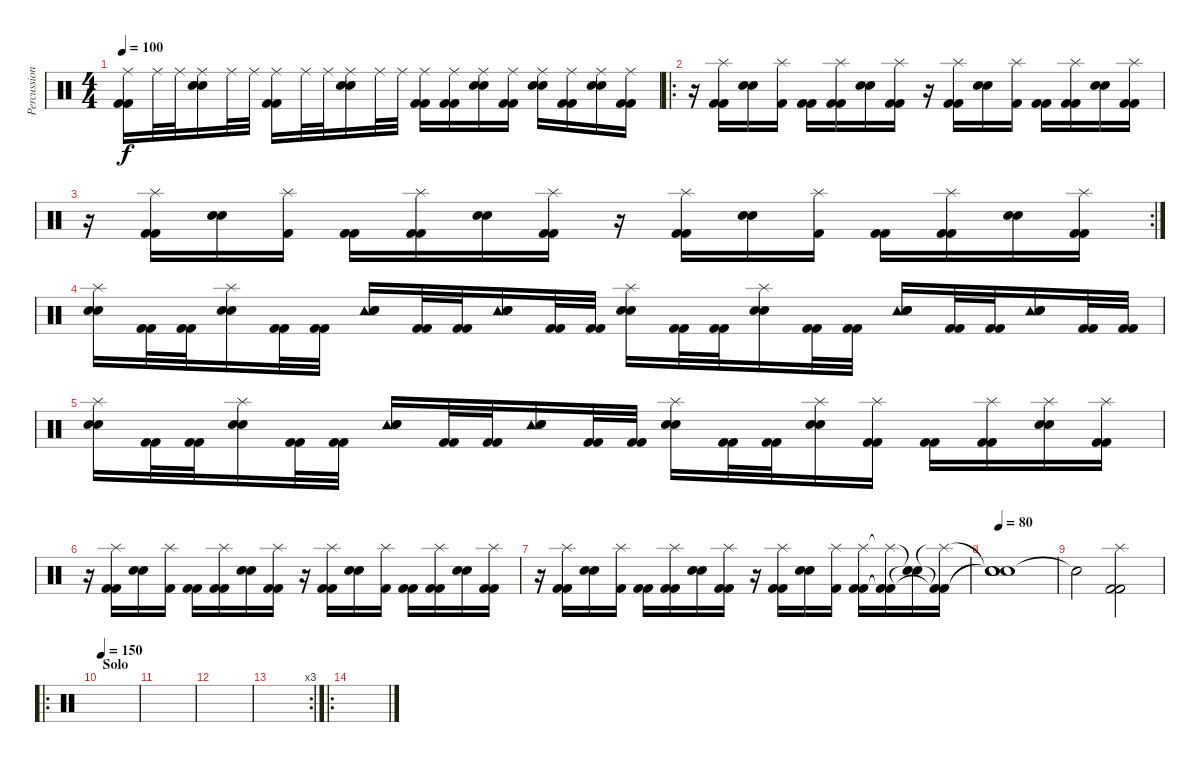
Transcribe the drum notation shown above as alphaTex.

\track ("Percussion Dolmayan" "Percussion") {instrument percussion}
\staff {score}
\articulation defaults
\ts (4 4)
\tempo 100
\clef neutral
\ks c
("Ride (middle)" "Kick (hit) 2" "Kick (hit) 2").16{dy f} "Ride (middle)".32 "Ride (middle)".32 ("Ride (middle)" "Electric Snare (hit)" "Electric Snare (hit)").16 "Ride (middle)".32 "Ride (middle)".32 ("Ride (middle)" "Kick (hit) 2" "Kick (hit) 2").16 "Ride (middle)".32 "Ride (middle)".32 ("Ride (middle)" "Electric Snare (hit)" "Electric Snare (hit)").16 "Ride (middle)".32 "Ride (middle)".32 ("Ride (middle)" "Kick (hit) 2" "Kick (hit) 2").16 ("Ride (middle)" "Kick (hit) 2" "Kick (hit) 2").16 ("Ride (middle)" "Electric Snare (hit)" "Electric Snare (hit)").16 ("Ride (middle)" "Kick (hit) 2" "Kick (hit) 2").16 ("Ride (middle)" "Electric Snare (hit)" "Electric Snare (hit)").16 ("Ride (middle)" "Kick (hit) 2" "Kick (hit) 2").16 ("Ride (middle)" "Electric Snare (hit)" "Electric Snare (hit)").16 ("Ride (middle)" "Kick (hit) 2" "Kick (hit) 2").16 |
\ro
r.16 ("Splash (hit)" "Kick (hit) 2" "Kick (hit) 2").16 ("Electric Snare (hit)" "Electric Snare (hit)").16 ("Splash (hit)" "Kick (hit) 2").16 ("Kick (hit) 2" "Kick (hit) 2").16 ("Splash (hit)" "Kick (hit) 2" "Kick (hit) 2").16 ("Electric Snare (hit)" "Electric Snare (hit)").16 ("Splash (hit)" "Kick (hit) 2" "Kick (hit) 2").16 r.16 ("Splash (hit)" "Kick (hit) 2" "Kick (hit) 2").16 ("Electric Snare (hit)" "Electric Snare (hit)").16 ("Splash (hit)" "Kick (hit) 2").16 ("Kick (hit) 2" "Kick (hit) 2").16 ("Splash (hit)" "Kick (hit) 2" "Kick (hit) 2").16 ("Electric Snare (hit)" "Electric Snare (hit)").16 ("Splash (hit)" "Kick (hit) 2" "Kick (hit) 2").16 |
\rc 2
r.16 ("Splash (hit)" "Kick (hit) 2" "Kick (hit) 2").16 ("Electric Snare (hit)" "Electric Snare (hit)").16 ("Splash (hit)" "Kick (hit) 2").16 ("Kick (hit) 2" "Kick (hit) 2").16 ("Splash (hit)" "Kick (hit) 2" "Kick (hit) 2").16 ("Electric Snare (hit)" "Electric Snare (hit)").16 ("Splash (hit)" "Kick (hit) 2" "Kick (hit) 2").16 r.16 ("Splash (hit)" "Kick (hit) 2" "Kick (hit) 2").16 ("Electric Snare (hit)" "Electric Snare (hit)").16 ("Splash (hit)" "Kick (hit) 2").16 ("Kick (hit) 2" "Kick (hit) 2").16 ("Splash (hit)" "Kick (hit) 2" "Kick (hit) 2").16 ("Electric Snare (hit)" "Electric Snare (hit)").16 ("Splash (hit)" "Kick (hit) 2" "Kick (hit) 2").16 |
("Splash (hit)" "Electric Snare (hit)" "Electric Snare (hit)").16 ("Kick (hit) 2" "Kick (hit) 2").32 ("Kick (hit) 2" "Kick (hit) 2").32 ("Splash (hit)" "Electric Snare (hit)" "Electric Snare (hit)").16 ("Kick (hit) 2" "Kick (hit) 2").32 ("Kick (hit) 2" "Kick (hit) 2").32 ("Tambourine (hit)" "Electric Snare (hit)" "Electric Snare (hit)").16 ("Kick (hit) 2" "Kick (hit) 2").32 ("Kick (hit) 2" "Kick (hit) 2").32 ("Tambourine (hit)" "Electric Snare (hit)" "Electric Snare (hit)").16 ("Kick (hit) 2" "Kick (hit) 2").32 ("Kick (hit) 2" "Kick (hit) 2").32 ("Splash (hit)" "Electric Snare (hit)" "Electric Snare (hit)").16 ("Kick (hit) 2" "Kick (hit) 2").32 ("Kick (hit) 2" "Kick (hit) 2").32 ("Splash (hit)" "Electric Snare (hit)" "Electric Snare (hit)").16 ("Kick (hit) 2" "Kick (hit) 2").32 ("Kick (hit) 2" "Kick (hit) 2").32 ("Tambourine (hit)" "Electric Snare (hit)" "Electric Snare (hit)").16 ("Kick (hit) 2" "Kick (hit) 2").32 ("Kick (hit) 2" "Kick (hit) 2").32 ("Tambourine (hit)" "Electric Snare (hit)" "Electric Snare (hit)").16 ("Kick (hit) 2" "Kick (hit) 2").32 ("Kick (hit) 2" "Kick (hit) 2").32 |
("Splash (hit)" "Electric Snare (hit)" "Electric Snare (hit)").16 ("Kick (hit) 2" "Kick (hit) 2").32 ("Kick (hit) 2" "Kick (hit) 2").32 ("Splash (hit)" "Electric Snare (hit)" "Electric Snare (hit)").16 ("Kick (hit) 2" "Kick (hit) 2").32 ("Kick (hit) 2" "Kick (hit) 2").32 ("Tambourine (hit)" "Electric Snare (hit)" "Electric Snare (hit)").16 ("Kick (hit) 2" "Kick (hit) 2").32 ("Kick (hit) 2" "Kick (hit) 2").32 ("Tambourine (hit)" "Electric Snare (hit)" "Electric Snare (hit)").16 ("Kick (hit) 2" "Kick (hit) 2").32 ("Kick (hit) 2" "Kick (hit) 2").32 ("Splash (hit)" "Electric Snare (hit)" "Electric Snare (hit)").16 ("Kick (hit) 2" "Kick (hit) 2").32 ("Kick (hit) 2" "Kick (hit) 2").32 ("Splash (hit)" "Electric Snare (hit)" "Electric Snare (hit)").16 ("Splash (hit)" "Kick (hit) 2" "Kick (hit) 2").16 ("Kick (hit) 2" "Kick (hit) 2").16 ("Splash (hit)" "Kick (hit) 2" "Kick (hit) 2").16 ("Splash (hit)" "Electric Snare (hit)" "Electric Snare (hit)").16 ("Splash (hit)" "Kick (hit) 2" "Kick (hit) 2").16 |
r.16 ("Splash (hit)" "Kick (hit) 2" "Kick (hit) 2").16 ("Electric Snare (hit)" "Electric Snare (hit)").16 ("Splash (hit)" "Kick (hit) 2").16 ("Kick (hit) 2" "Kick (hit) 2").16 ("Splash (hit)" "Kick (hit) 2" "Kick (hit) 2").16 ("Electric Snare (hit)" "Electric Snare (hit)").16 ("Splash (hit)" "Kick (hit) 2" "Kick (hit) 2").16 r.16 ("Splash (hit)" "Kick (hit) 2" "Kick (hit) 2").16 ("Electric Snare (hit)" "Electric Snare (hit)").16 ("Splash (hit)" "Kick (hit) 2").16 ("Kick (hit) 2" "Kick (hit) 2").16 ("Splash (hit)" "Kick (hit) 2" "Kick (hit) 2").16 ("Electric Snare (hit)" "Electric Snare (hit)").16 ("Splash (hit)" "Kick (hit) 2" "Kick (hit) 2").16 |
r.16 ("Splash (hit)" "Kick (hit) 2" "Kick (hit) 2").16 ("Electric Snare (hit)" "Electric Snare (hit)").16 ("Splash (hit)" "Kick (hit) 2").16 ("Kick (hit) 2" "Kick (hit) 2").16 ("Splash (hit)" "Kick (hit) 2" "Kick (hit) 2").16 ("Electric Snare (hit)" "Electric Snare (hit)").16 ("Splash (hit)" "Kick (hit) 2" "Kick (hit) 2").16 r.16 ("Splash (hit)" "Kick (hit) 2" "Kick (hit) 2").16 ("Electric Snare (hit)" "Electric Snare (hit)").16 ("Splash (hit)" "Kick (hit) 2").16 ("Splash (hit)" "Kick (hit) 2" "Kick (hit) 2").16 ("Splash (hit)"{t} "Kick (hit) 2"{t} "Kick (hit) 2"{t}).16 ("Electric Snare (hit)"{t} "Electric Snare (hit)"{t}).16 ("Splash (hit)"{t} "Kick (hit) 2"{t} "Kick (hit) 2"{t}).16 |
\tempo 80
("Snare (hit)"{t} "Snare (hit)"{t} "Snare (hit)"{t}).1 |
"Snare (hit)"{t}.2 ("Splash (hit)" "Kick (hit) 2" "Kick (hit) 2").2 |
\ro
\section ("" "Solo")
\tempo 150
|
|
|
\rc 3
|
\ro
